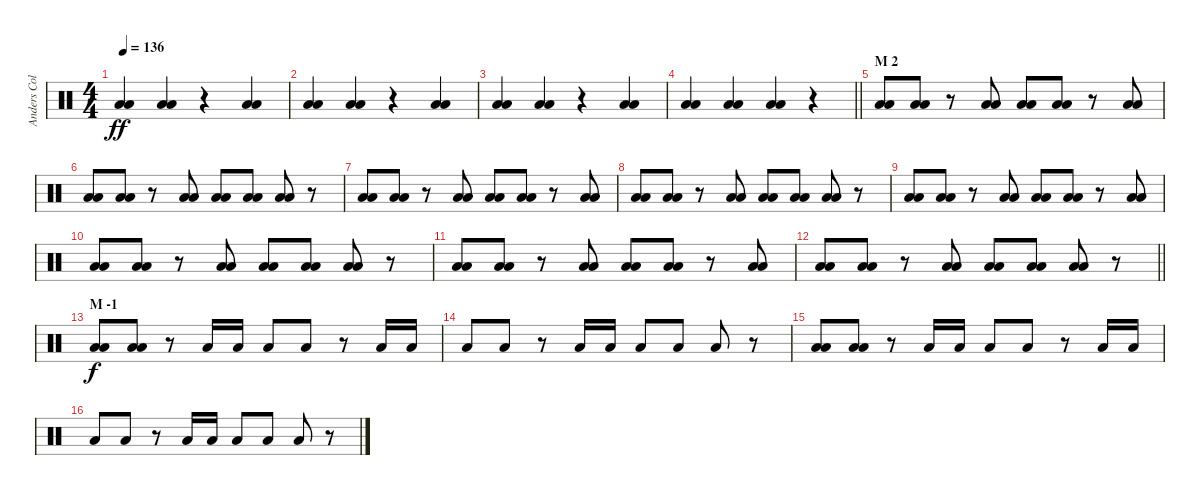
\track ("Anders Colsefni" "Anders Col") {instrument percussion}
\staff {score}
\articulation defaults
\ts (4 4)
\tempo 136
\clef neutral
\ks c
("Low Floor Tom (hit)" "Low Floor Tom (hit)").4{dy ff} ("Low Floor Tom (hit)" "Low Floor Tom (hit)").4 r.4 ("Low Floor Tom (hit)" "Low Floor Tom (hit)").4 |
("Low Floor Tom (hit)" "Low Floor Tom (hit)").4 ("Low Floor Tom (hit)" "Low Floor Tom (hit)").4 r.4 ("Low Floor Tom (hit)" "Low Floor Tom (hit)").4 |
("Low Floor Tom (hit)" "Low Floor Tom (hit)").4 ("Low Floor Tom (hit)" "Low Floor Tom (hit)").4 r.4 ("Low Floor Tom (hit)" "Low Floor Tom (hit)").4 |
\barLineRight lightlight
("Low Floor Tom (hit)" "Low Floor Tom (hit)").4 ("Low Floor Tom (hit)" "Low Floor Tom (hit)").4 ("Low Floor Tom (hit)" "Low Floor Tom (hit)").4 r.4 |
\section ("" "M 2")
("Low Floor Tom (hit)" "Low Floor Tom (hit)").8 ("Low Floor Tom (hit)" "Low Floor Tom (hit)").8 r.8 ("Low Floor Tom (hit)" "Low Floor Tom (hit)").8 ("Low Floor Tom (hit)" "Low Floor Tom (hit)").8 ("Low Floor Tom (hit)" "Low Floor Tom (hit)").8 r.8 ("Low Floor Tom (hit)" "Low Floor Tom (hit)").8 |
("Low Floor Tom (hit)" "Low Floor Tom (hit)").8 ("Low Floor Tom (hit)" "Low Floor Tom (hit)").8 r.8 ("Low Floor Tom (hit)" "Low Floor Tom (hit)").8 ("Low Floor Tom (hit)" "Low Floor Tom (hit)").8 ("Low Floor Tom (hit)" "Low Floor Tom (hit)").8 ("Low Floor Tom (hit)" "Low Floor Tom (hit)").8 r.8 |
("Low Floor Tom (hit)" "Low Floor Tom (hit)").8 ("Low Floor Tom (hit)" "Low Floor Tom (hit)").8 r.8 ("Low Floor Tom (hit)" "Low Floor Tom (hit)").8 ("Low Floor Tom (hit)" "Low Floor Tom (hit)").8 ("Low Floor Tom (hit)" "Low Floor Tom (hit)").8 r.8 ("Low Floor Tom (hit)" "Low Floor Tom (hit)").8 |
("Low Floor Tom (hit)" "Low Floor Tom (hit)").8 ("Low Floor Tom (hit)" "Low Floor Tom (hit)").8 r.8 ("Low Floor Tom (hit)" "Low Floor Tom (hit)").8 ("Low Floor Tom (hit)" "Low Floor Tom (hit)").8 ("Low Floor Tom (hit)" "Low Floor Tom (hit)").8 ("Low Floor Tom (hit)" "Low Floor Tom (hit)").8 r.8 |
("Low Floor Tom (hit)" "Low Floor Tom (hit)").8 ("Low Floor Tom (hit)" "Low Floor Tom (hit)").8 r.8 ("Low Floor Tom (hit)" "Low Floor Tom (hit)").8 ("Low Floor Tom (hit)" "Low Floor Tom (hit)").8 ("Low Floor Tom (hit)" "Low Floor Tom (hit)").8 r.8 ("Low Floor Tom (hit)" "Low Floor Tom (hit)").8 |
("Low Floor Tom (hit)" "Low Floor Tom (hit)").8 ("Low Floor Tom (hit)" "Low Floor Tom (hit)").8 r.8 ("Low Floor Tom (hit)" "Low Floor Tom (hit)").8 ("Low Floor Tom (hit)" "Low Floor Tom (hit)").8 ("Low Floor Tom (hit)" "Low Floor Tom (hit)").8 ("Low Floor Tom (hit)" "Low Floor Tom (hit)").8 r.8 |
("Low Floor Tom (hit)" "Low Floor Tom (hit)").8 ("Low Floor Tom (hit)" "Low Floor Tom (hit)").8 r.8 ("Low Floor Tom (hit)" "Low Floor Tom (hit)").8 ("Low Floor Tom (hit)" "Low Floor Tom (hit)").8 ("Low Floor Tom (hit)" "Low Floor Tom (hit)").8 r.8 ("Low Floor Tom (hit)" "Low Floor Tom (hit)").8 |
\barLineRight lightlight
("Low Floor Tom (hit)" "Low Floor Tom (hit)").8 ("Low Floor Tom (hit)" "Low Floor Tom (hit)").8 r.8 ("Low Floor Tom (hit)" "Low Floor Tom (hit)").8 ("Low Floor Tom (hit)" "Low Floor Tom (hit)").8 ("Low Floor Tom (hit)" "Low Floor Tom (hit)").8 ("Low Floor Tom (hit)" "Low Floor Tom (hit)").8 r.8 |
\section ("" "M -1")
("Low Floor Tom (hit)" "Low Floor Tom (hit)").8{dy f} ("Low Floor Tom (hit)" "Low Floor Tom (hit)").8 r.8 "Low Floor Tom (hit)".16 "Low Floor Tom (hit)".16 "Low Floor Tom (hit)".8 "Low Floor Tom (hit)".8 r.8 "Low Floor Tom (hit)".16 "Low Floor Tom (hit)".16 |
"Low Floor Tom (hit)".8 "Low Floor Tom (hit)".8 r.8 "Low Floor Tom (hit)".16 "Low Floor Tom (hit)".16 "Low Floor Tom (hit)".8 "Low Floor Tom (hit)".8 "Low Floor Tom (hit)".8 r.8 |
("Low Floor Tom (hit)" "Low Floor Tom (hit)").8 ("Low Floor Tom (hit)" "Low Floor Tom (hit)").8 r.8 "Low Floor Tom (hit)".16 "Low Floor Tom (hit)".16 "Low Floor Tom (hit)".8 "Low Floor Tom (hit)".8 r.8 "Low Floor Tom (hit)".16 "Low Floor Tom (hit)".16 |
"Low Floor Tom (hit)".8 "Low Floor Tom (hit)".8 r.8 "Low Floor Tom (hit)".16 "Low Floor Tom (hit)".16 "Low Floor Tom (hit)".8 "Low Floor Tom (hit)".8 "Low Floor Tom (hit)".8 r.8
